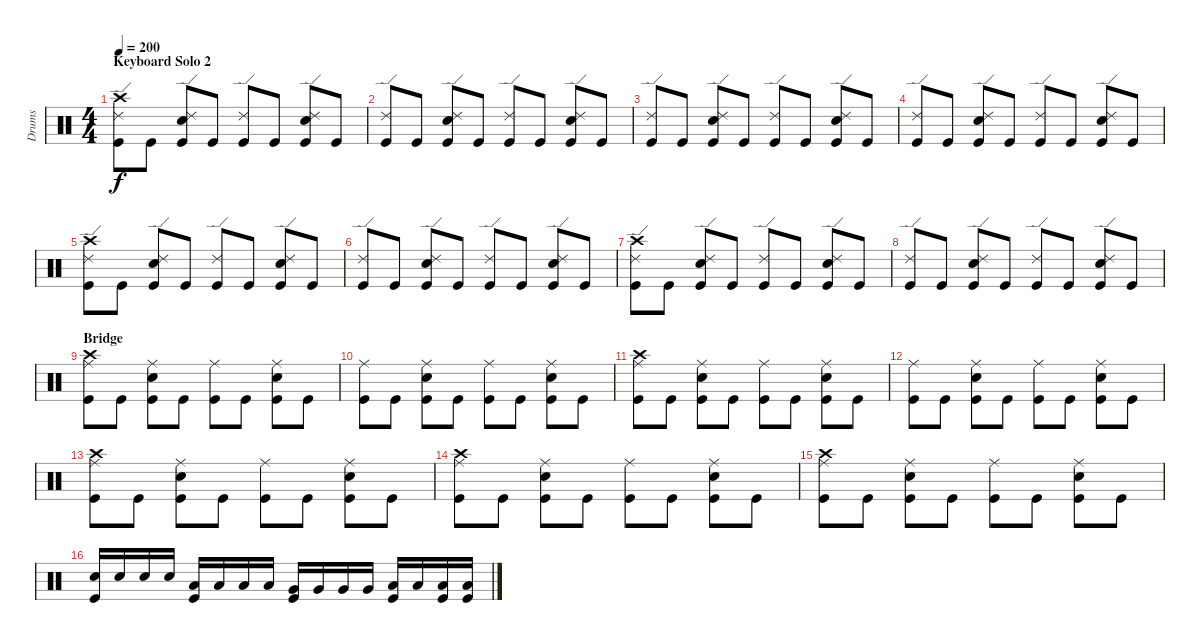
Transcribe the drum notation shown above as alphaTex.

\track ("Drums" "Drums") {instrument percussion}
\staff {score}
\articulation defaults
\ts (4 4)
\section ("" "Keyboard Solo 2")
\tempo 200
\clef neutral
\ks c
("Crash high (hit)" "Ride (edge) 2" "Kick (hit)").8{dy f} "Kick (hit)".8 ("Ride (edge) 2" "Snare (hit) 2" "Kick (hit)").8 "Kick (hit)".8 ("Ride (edge) 2" "Kick (hit)").8 "Kick (hit)".8 ("Ride (edge) 2" "Snare (hit) 2" "Kick (hit)").8 "Kick (hit)".8 |
("Ride (edge) 2" "Kick (hit)").8 "Kick (hit)".8 ("Ride (edge) 2" "Snare (hit) 2" "Kick (hit)").8 "Kick (hit)".8 ("Ride (edge) 2" "Kick (hit)").8 "Kick (hit)".8 ("Ride (edge) 2" "Snare (hit) 2" "Kick (hit)").8 "Kick (hit)".8 |
("Ride (edge) 2" "Kick (hit)").8 "Kick (hit)".8 ("Ride (edge) 2" "Snare (hit) 2" "Kick (hit)").8 "Kick (hit)".8 ("Ride (edge) 2" "Kick (hit)").8 "Kick (hit)".8 ("Ride (edge) 2" "Snare (hit) 2" "Kick (hit)").8 "Kick (hit)".8 |
("Ride (edge) 2" "Kick (hit)").8 "Kick (hit)".8 ("Ride (edge) 2" "Snare (hit) 2" "Kick (hit)").8 "Kick (hit)".8 ("Ride (edge) 2" "Kick (hit)").8 "Kick (hit)".8 ("Ride (edge) 2" "Snare (hit) 2" "Kick (hit)").8 "Kick (hit)".8 |
("Crash high (hit)" "Ride (edge) 2" "Kick (hit)").8 "Kick (hit)".8 ("Ride (edge) 2" "Snare (hit) 2" "Kick (hit)").8 "Kick (hit)".8 ("Ride (edge) 2" "Kick (hit)").8 "Kick (hit)".8 ("Ride (edge) 2" "Snare (hit) 2" "Kick (hit)").8 "Kick (hit)".8 |
("Ride (edge) 2" "Kick (hit)").8 "Kick (hit)".8 ("Ride (edge) 2" "Snare (hit) 2" "Kick (hit)").8 "Kick (hit)".8 ("Ride (edge) 2" "Kick (hit)").8 "Kick (hit)".8 ("Ride (edge) 2" "Snare (hit) 2" "Kick (hit)").8 "Kick (hit)".8 |
("Crash high (hit)" "Ride (edge) 2" "Kick (hit)").8 "Kick (hit)".8 ("Ride (edge) 2" "Snare (hit) 2" "Kick (hit)").8 "Kick (hit)".8 ("Ride (edge) 2" "Kick (hit)").8 "Kick (hit)".8 ("Ride (edge) 2" "Snare (hit) 2" "Kick (hit)").8 "Kick (hit)".8 |
("Ride (edge) 2" "Kick (hit)").8 "Kick (hit)".8 ("Ride (edge) 2" "Snare (hit) 2" "Kick (hit)").8 "Kick (hit)".8 ("Ride (edge) 2" "Kick (hit)").8 "Kick (hit)".8 ("Ride (edge) 2" "Snare (hit) 2" "Kick (hit)").8 "Kick (hit)".8 |
\section ("" "Bridge")
("Crash high (hit)" "Ride (middle)" "Kick (hit)").8 "Kick (hit)".8 ("Ride (middle)" "Snare (hit) 2" "Kick (hit)").8 "Kick (hit)".8 ("Ride (middle)" "Kick (hit)").8 "Kick (hit)".8 ("Ride (middle)" "Snare (hit) 2" "Kick (hit)").8 "Kick (hit)".8 |
("Ride (middle)" "Kick (hit)").8 "Kick (hit)".8 ("Ride (middle)" "Snare (hit) 2" "Kick (hit)").8 "Kick (hit)".8 ("Ride (middle)" "Kick (hit)").8 "Kick (hit)".8 ("Ride (middle)" "Snare (hit) 2" "Kick (hit)").8 "Kick (hit)".8 |
("Crash high (hit)" "Ride (middle)" "Kick (hit)").8 "Kick (hit)".8 ("Ride (middle)" "Snare (hit) 2" "Kick (hit)").8 "Kick (hit)".8 ("Ride (middle)" "Kick (hit)").8 "Kick (hit)".8 ("Ride (middle)" "Snare (hit) 2" "Kick (hit)").8 "Kick (hit)".8 |
("Ride (middle)" "Kick (hit)").8 "Kick (hit)".8 ("Ride (middle)" "Snare (hit) 2" "Kick (hit)").8 "Kick (hit)".8 ("Ride (middle)" "Kick (hit)").8 "Kick (hit)".8 ("Ride (middle)" "Snare (hit) 2" "Kick (hit)").8 "Kick (hit)".8 |
("Crash high (hit)" "Ride (middle)" "Kick (hit)").8 "Kick (hit)".8 ("Ride (middle)" "Snare (hit) 2" "Kick (hit)").8 "Kick (hit)".8 ("Ride (middle)" "Kick (hit)").8 "Kick (hit)".8 ("Ride (middle)" "Snare (hit) 2" "Kick (hit)").8 "Kick (hit)".8 |
("Crash high (hit)" "Ride (middle)" "Kick (hit)").8 "Kick (hit)".8 ("Ride (middle)" "Snare (hit) 2" "Kick (hit)").8 "Kick (hit)".8 ("Ride (middle)" "Kick (hit)").8 "Kick (hit)".8 ("Ride (middle)" "Snare (hit) 2" "Kick (hit)").8 "Kick (hit)".8 |
("Crash high (hit)" "Ride (middle)" "Kick (hit)").8 "Kick (hit)".8 ("Ride (middle)" "Snare (hit) 2" "Kick (hit)").8 "Kick (hit)".8 ("Ride (middle)" "Kick (hit)").8 "Kick (hit)".8 ("Ride (middle)" "Snare (hit) 2" "Kick (hit)").8 "Kick (hit)".8 |
("Snare (hit) 2" "Kick (hit)").16 "Snare (hit) 2".16 "Snare (hit) 2".16 "Snare (hit) 2".16 ("Low Tom (hit)" "Kick (hit)").16 "Low Tom (hit)".16 "Low Tom (hit)".16 "Low Tom (hit)".16 ("Very Low Tom (hit)" "Kick (hit)").16 "Very Low Tom (hit)".16 "Very Low Tom (hit)".16 "Very Low Tom (hit)".16 ("Low Floor Tom (hit)" "Kick (hit)").16 "Low Floor Tom (hit)".16 ("Low Floor Tom (hit)" "Kick (hit)").16 ("Low Floor Tom (hit)" "Kick (hit)").16
